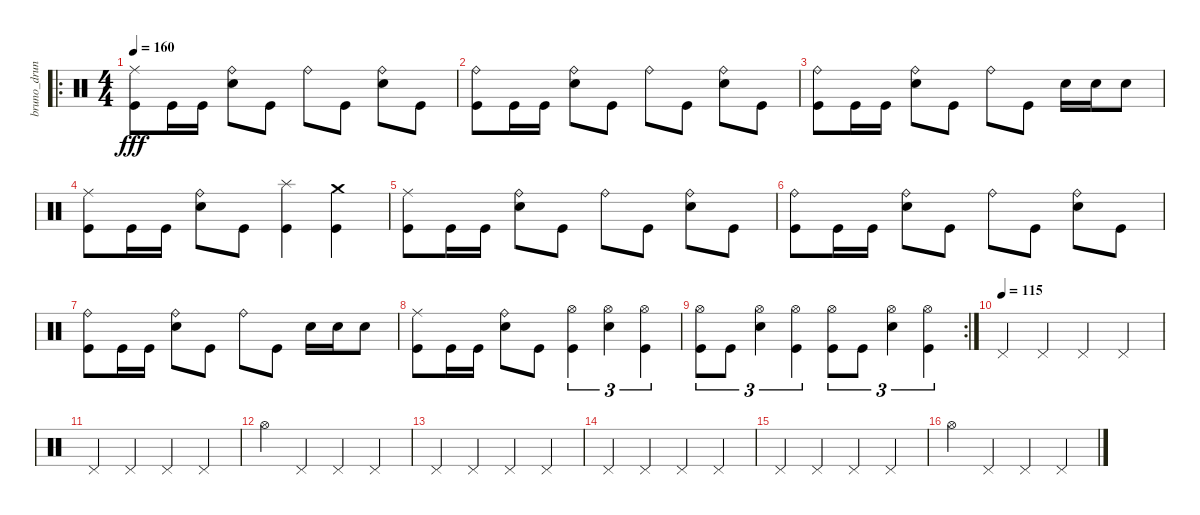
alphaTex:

\track ("bruno_druns" "bruno_drun") {instrument percussion}
\staff {score}
\articulation defaults
\ro
\ts (4 4)
\tempo 160
\clef neutral
\ks c
("Kick (hit)" "Ride (middle)").8{dy fff} "Kick (hit)".16 "Kick (hit)".16 ("Electric Snare (hit)" "Ride (bell)").8 "Kick (hit)".8 "Ride (bell)".8 "Kick (hit)".8 ("Electric Snare (hit)" "Ride (bell)").8 "Kick (hit)".8 |
("Kick (hit)" "Ride (bell)").8 "Kick (hit)".16 "Kick (hit)".16 ("Electric Snare (hit)" "Ride (bell)").8 "Kick (hit)".8 "Ride (bell)".8 "Kick (hit)".8 ("Electric Snare (hit)" "Ride (bell)").8 "Kick (hit)".8 |
("Kick (hit)" "Ride (bell)").8 "Kick (hit)".16 "Kick (hit)".16 ("Electric Snare (hit)" "Ride (bell)").8 "Kick (hit)".8 "Ride (bell)".8 "Kick (hit)".8 "Electric Snare (hit)".16 "Electric Snare (hit)".16 "Electric Snare (hit)".8 |
("Kick (hit)" "Ride (middle)").8 "Kick (hit)".16 "Kick (hit)".16 ("Electric Snare (hit)" "Ride (bell)").8 "Kick (hit)".8 ("Kick (hit)" "Splash (hit)").4 ("Kick (hit)" "Crash medium (hit)").4 |
("Kick (hit)" "Ride (middle)").8 "Kick (hit)".16 "Kick (hit)".16 ("Electric Snare (hit)" "Ride (bell)").8 "Kick (hit)".8 "Ride (bell)".8 "Kick (hit)".8 ("Electric Snare (hit)" "Ride (bell)").8 "Kick (hit)".8 |
("Kick (hit)" "Ride (bell)").8 "Kick (hit)".16 "Kick (hit)".16 ("Electric Snare (hit)" "Ride (bell)").8 "Kick (hit)".8 "Ride (bell)".8 "Kick (hit)".8 ("Electric Snare (hit)" "Ride (bell)").8 "Kick (hit)".8 |
("Kick (hit)" "Ride (bell)").8 "Kick (hit)".16 "Kick (hit)".16 ("Electric Snare (hit)" "Ride (bell)").8 "Kick (hit)".8 "Ride (bell)".8 "Kick (hit)".8 "Electric Snare (hit)".16 "Electric Snare (hit)".16 "Electric Snare (hit)".8 |
("Kick (hit)" "Ride (middle)").8 "Kick (hit)".16 "Kick (hit)".16 ("Electric Snare (hit)" "Ride (bell)").8 "Kick (hit)".8 ("Kick (hit)" "Hi-Hat (open)").4{tu (3 2)} ("Electric Snare (hit)" "Hi-Hat (open)").4{tu (3 2)} ("Kick (hit)" "Hi-Hat (open)").4{tu (3 2)} |
\rc 2
("Kick (hit)" "Hi-Hat (open)").8{tu (3 2)} "Kick (hit)".8{tu (3 2)} ("Electric Snare (hit)" "Hi-Hat (open)").4{tu (3 2)} ("Kick (hit)" "Hi-Hat (open)").4{tu (3 2)} ("Kick (hit)" "Hi-Hat (open)").8{tu (3 2)} "Kick (hit)".8{tu (3 2)} ("Electric Snare (hit)" "Hi-Hat (open)").4{tu (3 2)} ("Kick (hit)" "Hi-Hat (open)").4{tu (3 2)} |
\tempo (115)
"Pedal Hi-Hat (hit)".4 "Pedal Hi-Hat (hit)".4 "Pedal Hi-Hat (hit)".4 "Pedal Hi-Hat (hit)".4 |
"Pedal Hi-Hat (hit)".4 "Pedal Hi-Hat (hit)".4 "Pedal Hi-Hat (hit)".4 "Pedal Hi-Hat (hit)".4 |
"Hi-Hat (open)".4 "Pedal Hi-Hat (hit)".4 "Pedal Hi-Hat (hit)".4 "Pedal Hi-Hat (hit)".4 |
"Pedal Hi-Hat (hit)".4 "Pedal Hi-Hat (hit)".4 "Pedal Hi-Hat (hit)".4 "Pedal Hi-Hat (hit)".4 |
"Pedal Hi-Hat (hit)".4 "Pedal Hi-Hat (hit)".4 "Pedal Hi-Hat (hit)".4 "Pedal Hi-Hat (hit)".4 |
"Pedal Hi-Hat (hit)".4 "Pedal Hi-Hat (hit)".4 "Pedal Hi-Hat (hit)".4 "Pedal Hi-Hat (hit)".4 |
"Hi-Hat (open)".4 "Pedal Hi-Hat (hit)".4 "Pedal Hi-Hat (hit)".4 "Pedal Hi-Hat (hit)".4
